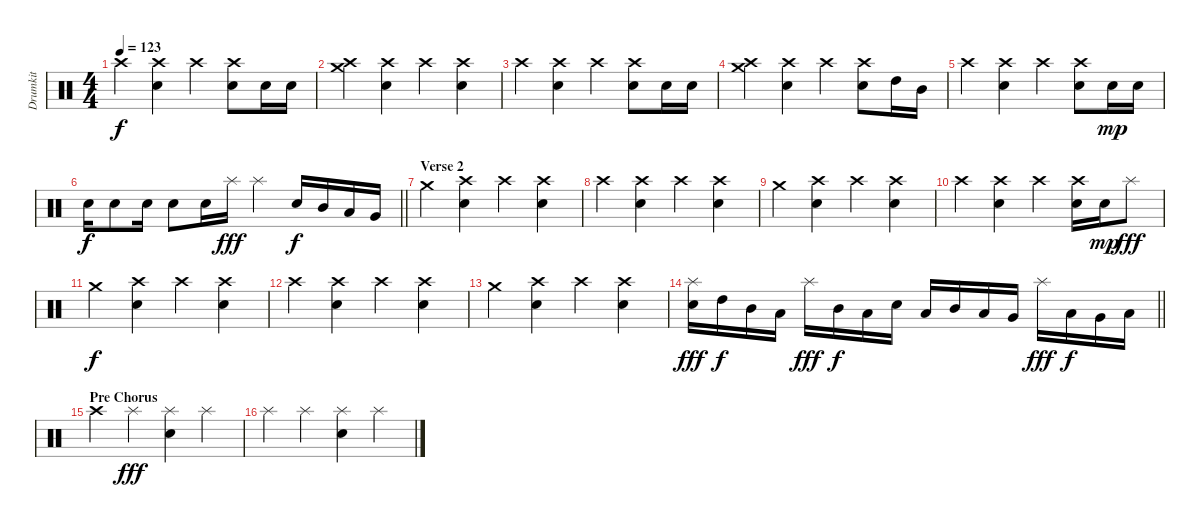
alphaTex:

\track ("Drumkit" "Drumkit") {instrument percussion}
\staff {score}
\articulation defaults
\ts (4 4)
\tempo 123
\clef neutral
\ks c "Crash high (hit)".4{dy f}
("Crash high (hit)" "Electric Snare (hit)").4 "Crash high (hit)".4 ("Crash high (hit)" "Electric Snare (hit)").8 "Electric Snare (hit)".16 "Electric Snare (hit)".16 |
("Crash medium (hit)" "Crash high (hit)").4 ("Crash high (hit)" "Electric Snare (hit)").4 "Crash high (hit)".4 ("Crash high (hit)" "Electric Snare (hit)").4 |
"Crash high (hit)".4 ("Crash high (hit)" "Electric Snare (hit)").4 "Crash high (hit)".4 ("Crash high (hit)" "Electric Snare (hit)").8 "Electric Snare (hit)".16 "Electric Snare (hit)".16 |
("Crash medium (hit)" "Crash high (hit)").4 ("Crash high (hit)" "Electric Snare (hit)").4 "Crash high (hit)".4 ("Crash high (hit)" "Electric Snare (hit)").8 "High Tom (hit)".16 "Mid Tom (hit)".16 |
"Crash high (hit)".4 ("Crash high (hit)" "Electric Snare (hit)").4 "Crash high (hit)".4 ("Crash high (hit)" "Electric Snare (hit)").8 "Electric Snare (hit)".16{dy mp} "Electric Snare (hit)".16 |
\barLineRight lightlight "Electric Snare (hit)".16{dy f} "Electric Snare (hit)".8 "Electric Snare (hit)".16 "Electric Snare (hit)".8 "Electric Snare (hit)".16 "Splash (hit)".16{dy fff} "Splash (hit)".4 "Electric Snare (hit)".16{dy f} "Mid Tom (hit)".16 "Low Tom (hit)".16 "Very Low Tom (hit)".16
|
\section ("" "Verse 2")
"Crash medium (hit)".4 ("Crash high (hit)" "Electric Snare (hit)").4 "Crash high (hit)".4 ("Crash high (hit)" "Electric Snare (hit)").4 |
"Crash high (hit)".4 ("Crash high (hit)" "Electric Snare (hit)").4 "Crash high (hit)".4 ("Crash high (hit)" "Electric Snare (hit)").4 |
"Crash medium (hit)".4 ("Crash high (hit)" "Electric Snare (hit)").4 "Crash high (hit)".4 ("Crash high (hit)" "Electric Snare (hit)").4 |
"Crash high (hit)".4 ("Crash high (hit)" "Electric Snare (hit)").4 "Crash high (hit)".4 ("Crash high (hit)" "Electric Snare (hit)").16 "Electric Snare (hit)".16{dy mp} "Splash (hit)".8{dy fff} |
"Crash medium (hit)".4{dy f} ("Crash high (hit)" "Electric Snare (hit)").4 "Crash high (hit)".4 ("Crash high (hit)" "Electric Snare (hit)").4 |
"Crash high (hit)".4 ("Crash high (hit)" "Electric Snare (hit)").4 "Crash high (hit)".4 ("Crash high (hit)" "Electric Snare (hit)").4 |
"Crash medium (hit)".4 ("Crash high (hit)" "Electric Snare (hit)").4 "Crash high (hit)".4 ("Crash high (hit)" "Electric Snare (hit)").4 |
\barLineRight lightlight
("Splash (hit)" "Electric Snare (hit)").16{dy fff} "High Tom (hit)".16{dy f} "Mid Tom (hit)".16 "Low Tom (hit)".16 "Splash (hit)".16{dy fff} "Mid Tom (hit)".16{dy f} "Low Tom (hit)".16 "Electric Snare (hit)".16 "Low Floor Tom (hit)".16 "Mid Tom (hit)".16 "Low Tom (hit)".16 "Very Low Tom (hit)".16 "Splash (hit)".16{dy fff} "Low Tom (hit)".16{dy f} "Very Low Tom (hit)".16 "Low Floor Tom (hit)".16 |
\section ("" "Pre Chorus")
"Crash high (hit)".4 "Splash (hit)".4{dy fff} ("Splash (hit)" "Electric Snare (hit)").4 "Splash (hit)".4 |
"Splash (hit)".4 "Splash (hit)".4 ("Splash (hit)" "Electric Snare (hit)").4 "Splash (hit)".4
